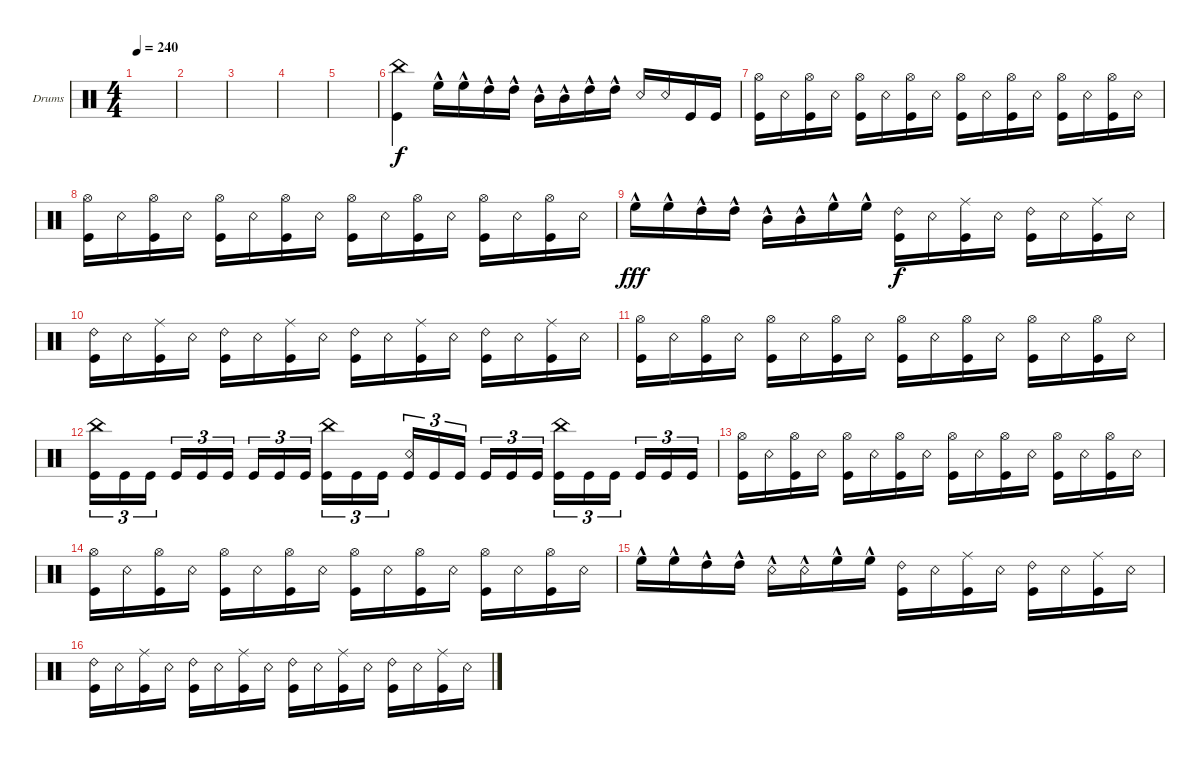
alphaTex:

\bracketExtendMode groupsimilarinstruments
\firstSystemTrackNameOrientation horizontal
\otherSystemsTrackNameOrientation horizontal
\track ("Drumkit" "Drums") {instrument percussion}
\staff {score}
\articulation defaults
\ts (4 4)
\tempo 240
\clef neutral
\ks c
|
|
|
|
|
("China (hit)" "Kick (hit)").4 "High Floor Tom (hit)"{hac}.16 "High Floor Tom (hit)"{hac}.16 "High Tom (hit)"{hac}.16 "High Tom (hit)"{hac}.16 "Mid Tom (hit)"{hac}.16 "Mid Tom (hit)"{hac}.16 "High Tom (hit)"{hac}.16 "High Tom (hit)"{hac}.16 "Snare (rim shot)".16 "Snare (rim shot)".16 "Kick (hit)".16 "Kick (hit)".16 |
("Kick (hit)" "Hi-Hat (open)").16 "Snare (rim shot)".16 ("Kick (hit)" "Hi-Hat (open)").16 "Snare (rim shot)".16 ("Kick (hit)" "Hi-Hat (open)").16 "Snare (rim shot)".16 ("Kick (hit)" "Hi-Hat (open)").16 "Snare (rim shot)".16 ("Kick (hit)" "Hi-Hat (open)").16 "Snare (rim shot)".16 ("Kick (hit)" "Hi-Hat (open)").16 "Snare (rim shot)".16 ("Kick (hit)" "Hi-Hat (open)").16 "Snare (rim shot)".16 ("Kick (hit)" "Hi-Hat (open)").16 "Snare (rim shot)".16 |
("Kick (hit)" "Hi-Hat (open)").16 "Snare (rim shot)".16 ("Kick (hit)" "Hi-Hat (open)").16 "Snare (rim shot)".16 ("Kick (hit)" "Hi-Hat (open)").16 "Snare (rim shot)".16 ("Kick (hit)" "Hi-Hat (open)").16 "Snare (rim shot)".16 ("Kick (hit)" "Hi-Hat (open)").16 "Snare (rim shot)".16 ("Kick (hit)" "Hi-Hat (open)").16 "Snare (rim shot)".16 ("Kick (hit)" "Hi-Hat (open)").16 "Snare (rim shot)".16 ("Kick (hit)" "Hi-Hat (open)").16 "Snare (rim shot)".16 |
"High Floor Tom (hit)"{hac}.16{dy fff} "High Floor Tom (hit)"{hac}.16 "High Tom (hit)"{hac}.16 "High Tom (hit)"{hac}.16 "Mid Tom (hit)"{hac}.16 "Mid Tom (hit)"{hac}.16 "High Floor Tom (hit)"{hac}.16 "High Floor Tom (hit)"{hac}.16 ("Kick (hit)" "Ride (bell) 2").16{dy f} "Snare (rim shot)".16 ("Kick (hit)" "Ride (middle)").16 "Snare (rim shot)".16 ("Kick (hit)" "Ride (bell) 2").16 "Snare (rim shot)".16 ("Kick (hit)" "Ride (middle)").16 "Snare (rim shot)".16 |
("Kick (hit)" "Ride (bell) 2").16 "Snare (rim shot)".16 ("Kick (hit)" "Ride (middle)").16 "Snare (rim shot)".16 ("Kick (hit)" "Ride (bell) 2").16 "Snare (rim shot)".16 ("Kick (hit)" "Ride (middle)").16 "Snare (rim shot)".16 ("Kick (hit)" "Ride (bell) 2").16 "Snare (rim shot)".16 ("Kick (hit)" "Ride (middle)").16 "Snare (rim shot)".16 ("Kick (hit)" "Ride (bell) 2").16 "Snare (rim shot)".16 ("Kick (hit)" "Ride (middle)").16 "Snare (rim shot)".16 |
("Kick (hit)" "Hi-Hat (open)").16 "Snare (rim shot)".16 ("Kick (hit)" "Hi-Hat (open)").16 "Snare (rim shot)".16 ("Kick (hit)" "Hi-Hat (open)").16 "Snare (rim shot)".16 ("Kick (hit)" "Hi-Hat (open)").16 "Snare (rim shot)".16 ("Kick (hit)" "Hi-Hat (open)").16 "Snare (rim shot)".16 ("Kick (hit)" "Hi-Hat (open)").16 "Snare (rim shot)".16 ("Kick (hit)" "Hi-Hat (open)").16 "Snare (rim shot)".16 ("Kick (hit)" "Hi-Hat (open)").16 "Snare (rim shot)".16 |
("Kick (hit)" "China (hit)").16{tu (3 2)} "Kick (hit)".16{tu (3 2)} "Kick (hit)".16{tu (3 2)} "Kick (hit)".16{tu (3 2)} "Kick (hit)".16{tu (3 2)} "Kick (hit)".16{tu (3 2)} "Kick (hit)".16{tu (3 2)} "Kick (hit)".16{tu (3 2)} "Kick (hit)".16{tu (3 2)} ("Kick (hit)" "China (hit)").16{tu (3 2)} "Kick (hit)".16{tu (3 2)} "Kick (hit)".16{tu (3 2)} ("Kick (hit)" "Snare (rim shot)").16{tu (3 2)} "Kick (hit)".16{tu (3 2)} "Kick (hit)".16{tu (3 2)} "Kick (hit)".16{tu (3 2)} "Kick (hit)".16{tu (3 2)} "Kick (hit)".16{tu (3 2)} ("Kick (hit)" "China (hit)").16{tu (3 2)} "Kick (hit)".16{tu (3 2)} "Kick (hit)".16{tu (3 2)} "Kick (hit)".16{tu (3 2)} "Kick (hit)".16{tu (3 2)} "Kick (hit)".16{tu (3 2)} |
("Kick (hit)" "Hi-Hat (open)").16 "Snare (rim shot)".16 ("Kick (hit)" "Hi-Hat (open)").16 "Snare (rim shot)".16 ("Kick (hit)" "Hi-Hat (open)").16 "Snare (rim shot)".16 ("Kick (hit)" "Hi-Hat (open)").16 "Snare (rim shot)".16 ("Kick (hit)" "Hi-Hat (open)").16 "Snare (rim shot)".16 ("Kick (hit)" "Hi-Hat (open)").16 "Snare (rim shot)".16 ("Kick (hit)" "Hi-Hat (open)").16 "Snare (rim shot)".16 ("Kick (hit)" "Hi-Hat (open)").16 "Snare (rim shot)".16 |
("Kick (hit)" "Hi-Hat (open)").16 "Snare (rim shot)".16 ("Kick (hit)" "Hi-Hat (open)").16 "Snare (rim shot)".16 ("Kick (hit)" "Hi-Hat (open)").16 "Snare (rim shot)".16 ("Kick (hit)" "Hi-Hat (open)").16 "Snare (rim shot)".16 ("Kick (hit)" "Hi-Hat (open)").16 "Snare (rim shot)".16 ("Kick (hit)" "Hi-Hat (open)").16 "Snare (rim shot)".16 ("Kick (hit)" "Hi-Hat (open)").16 "Snare (rim shot)".16 ("Kick (hit)" "Hi-Hat (open)").16 "Snare (rim shot)".16 |
"High Floor Tom (hit)"{hac}.16 "High Floor Tom (hit)"{hac}.16 "High Tom (hit)"{hac}.16 "High Tom (hit)"{hac}.16 "Snare (rim shot)"{hac}.16 "Snare (rim shot)"{hac}.16 "High Floor Tom (hit)"{hac}.16 "High Floor Tom (hit)"{hac}.16 ("Kick (hit)" "Ride (bell) 2").16 "Snare (rim shot)".16 ("Kick (hit)" "Ride (middle)").16 "Snare (rim shot)".16 ("Kick (hit)" "Ride (bell) 2").16 "Snare (rim shot)".16 ("Kick (hit)" "Ride (middle)").16 "Snare (rim shot)".16 |
("Kick (hit)" "Ride (bell) 2").16 "Snare (rim shot)".16 ("Kick (hit)" "Ride (middle)").16 "Snare (rim shot)".16 ("Kick (hit)" "Ride (bell) 2").16 "Snare (rim shot)".16 ("Kick (hit)" "Ride (middle)").16 "Snare (rim shot)".16 ("Kick (hit)" "Ride (bell) 2").16 "Snare (rim shot)".16 ("Kick (hit)" "Ride (middle)").16 "Snare (rim shot)".16 ("Kick (hit)" "Ride (bell) 2").16 "Snare (rim shot)".16 ("Kick (hit)" "Ride (middle)").16 "Snare (rim shot)".16
